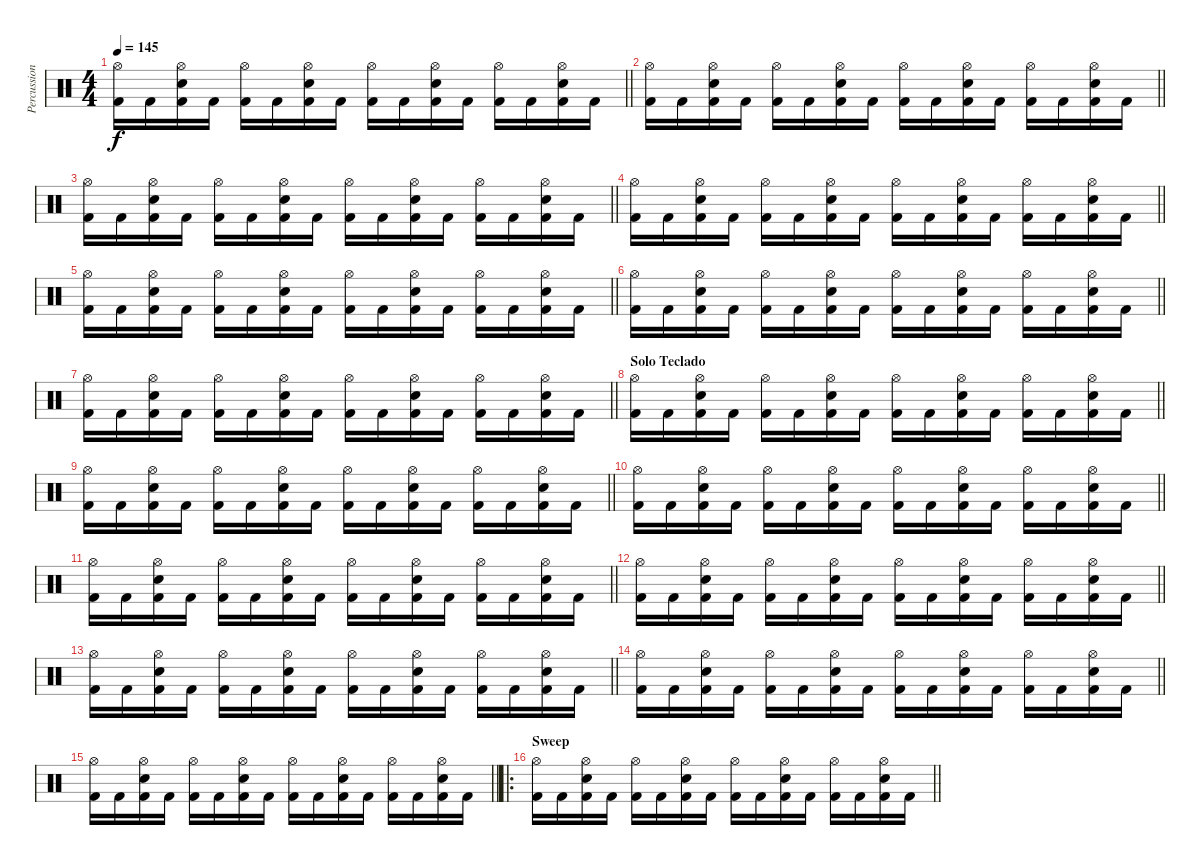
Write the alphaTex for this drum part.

\track ("Percussion" "Percussion") {instrument percussion}
\staff {score}
\articulation defaults
\ts (4 4)
\tempo 145
\clef neutral
\barLineRight lightlight
\ks c
("Hi-Hat (open)" "Kick (hit) 2").16{dy f} "Kick (hit) 2".16 ("Hi-Hat (open)" "Electric Snare (hit)" "Kick (hit) 2").16 "Kick (hit) 2".16 ("Hi-Hat (open)" "Kick (hit) 2").16 "Kick (hit) 2".16 ("Hi-Hat (open)" "Electric Snare (hit)" "Kick (hit) 2").16 "Kick (hit) 2".16 ("Hi-Hat (open)" "Kick (hit) 2").16 "Kick (hit) 2".16 ("Hi-Hat (open)" "Electric Snare (hit)" "Kick (hit) 2").16 "Kick (hit) 2".16 ("Hi-Hat (open)" "Kick (hit) 2").16 "Kick (hit) 2".16 ("Hi-Hat (open)" "Electric Snare (hit)" "Kick (hit) 2").16 "Kick (hit) 2".16 |
\barLineRight lightlight
("Hi-Hat (open)" "Kick (hit) 2").16 "Kick (hit) 2".16 ("Hi-Hat (open)" "Electric Snare (hit)" "Kick (hit) 2").16 "Kick (hit) 2".16 ("Hi-Hat (open)" "Kick (hit) 2").16 "Kick (hit) 2".16 ("Hi-Hat (open)" "Electric Snare (hit)" "Kick (hit) 2").16 "Kick (hit) 2".16 ("Hi-Hat (open)" "Kick (hit) 2").16 "Kick (hit) 2".16 ("Hi-Hat (open)" "Electric Snare (hit)" "Kick (hit) 2").16 "Kick (hit) 2".16 ("Hi-Hat (open)" "Kick (hit) 2").16 "Kick (hit) 2".16 ("Hi-Hat (open)" "Electric Snare (hit)" "Kick (hit) 2").16 "Kick (hit) 2".16 |
\barLineRight lightlight
("Hi-Hat (open)" "Kick (hit) 2").16 "Kick (hit) 2".16 ("Hi-Hat (open)" "Electric Snare (hit)" "Kick (hit) 2").16 "Kick (hit) 2".16 ("Hi-Hat (open)" "Kick (hit) 2").16 "Kick (hit) 2".16 ("Hi-Hat (open)" "Electric Snare (hit)" "Kick (hit) 2").16 "Kick (hit) 2".16 ("Hi-Hat (open)" "Kick (hit) 2").16 "Kick (hit) 2".16 ("Hi-Hat (open)" "Electric Snare (hit)" "Kick (hit) 2").16 "Kick (hit) 2".16 ("Hi-Hat (open)" "Kick (hit) 2").16 "Kick (hit) 2".16 ("Hi-Hat (open)" "Electric Snare (hit)" "Kick (hit) 2").16 "Kick (hit) 2".16 |
\barLineRight lightlight
("Hi-Hat (open)" "Kick (hit) 2").16 "Kick (hit) 2".16 ("Hi-Hat (open)" "Electric Snare (hit)" "Kick (hit) 2").16 "Kick (hit) 2".16 ("Hi-Hat (open)" "Kick (hit) 2").16 "Kick (hit) 2".16 ("Hi-Hat (open)" "Electric Snare (hit)" "Kick (hit) 2").16 "Kick (hit) 2".16 ("Hi-Hat (open)" "Kick (hit) 2").16 "Kick (hit) 2".16 ("Hi-Hat (open)" "Electric Snare (hit)" "Kick (hit) 2").16 "Kick (hit) 2".16 ("Hi-Hat (open)" "Kick (hit) 2").16 "Kick (hit) 2".16 ("Hi-Hat (open)" "Electric Snare (hit)" "Kick (hit) 2").16 "Kick (hit) 2".16 |
\barLineRight lightlight
("Hi-Hat (open)" "Kick (hit) 2").16 "Kick (hit) 2".16 ("Hi-Hat (open)" "Electric Snare (hit)" "Kick (hit) 2").16 "Kick (hit) 2".16 ("Hi-Hat (open)" "Kick (hit) 2").16 "Kick (hit) 2".16 ("Hi-Hat (open)" "Electric Snare (hit)" "Kick (hit) 2").16 "Kick (hit) 2".16 ("Hi-Hat (open)" "Kick (hit) 2").16 "Kick (hit) 2".16 ("Hi-Hat (open)" "Electric Snare (hit)" "Kick (hit) 2").16 "Kick (hit) 2".16 ("Hi-Hat (open)" "Kick (hit) 2").16 "Kick (hit) 2".16 ("Hi-Hat (open)" "Electric Snare (hit)" "Kick (hit) 2").16 "Kick (hit) 2".16 |
\barLineRight lightlight
("Hi-Hat (open)" "Kick (hit) 2").16 "Kick (hit) 2".16 ("Hi-Hat (open)" "Electric Snare (hit)" "Kick (hit) 2").16 "Kick (hit) 2".16 ("Hi-Hat (open)" "Kick (hit) 2").16 "Kick (hit) 2".16 ("Hi-Hat (open)" "Electric Snare (hit)" "Kick (hit) 2").16 "Kick (hit) 2".16 ("Hi-Hat (open)" "Kick (hit) 2").16 "Kick (hit) 2".16 ("Hi-Hat (open)" "Electric Snare (hit)" "Kick (hit) 2").16 "Kick (hit) 2".16 ("Hi-Hat (open)" "Kick (hit) 2").16 "Kick (hit) 2".16 ("Hi-Hat (open)" "Electric Snare (hit)" "Kick (hit) 2").16 "Kick (hit) 2".16 |
\barLineRight lightlight
("Hi-Hat (open)" "Kick (hit) 2").16 "Kick (hit) 2".16 ("Hi-Hat (open)" "Electric Snare (hit)" "Kick (hit) 2").16 "Kick (hit) 2".16 ("Hi-Hat (open)" "Kick (hit) 2").16 "Kick (hit) 2".16 ("Hi-Hat (open)" "Electric Snare (hit)" "Kick (hit) 2").16 "Kick (hit) 2".16 ("Hi-Hat (open)" "Kick (hit) 2").16 "Kick (hit) 2".16 ("Hi-Hat (open)" "Electric Snare (hit)" "Kick (hit) 2").16 "Kick (hit) 2".16 ("Hi-Hat (open)" "Kick (hit) 2").16 "Kick (hit) 2".16 ("Hi-Hat (open)" "Electric Snare (hit)" "Kick (hit) 2").16 "Kick (hit) 2".16 |
\section ("" "Solo Teclado")
\barLineRight lightlight
("Hi-Hat (open)" "Kick (hit) 2").16 "Kick (hit) 2".16 ("Hi-Hat (open)" "Electric Snare (hit)" "Kick (hit) 2").16 "Kick (hit) 2".16 ("Hi-Hat (open)" "Kick (hit) 2").16 "Kick (hit) 2".16 ("Hi-Hat (open)" "Electric Snare (hit)" "Kick (hit) 2").16 "Kick (hit) 2".16 ("Hi-Hat (open)" "Kick (hit) 2").16 "Kick (hit) 2".16 ("Hi-Hat (open)" "Electric Snare (hit)" "Kick (hit) 2").16 "Kick (hit) 2".16 ("Hi-Hat (open)" "Kick (hit) 2").16 "Kick (hit) 2".16 ("Hi-Hat (open)" "Electric Snare (hit)" "Kick (hit) 2").16 "Kick (hit) 2".16 |
\barLineRight lightlight
("Hi-Hat (open)" "Kick (hit) 2").16 "Kick (hit) 2".16 ("Hi-Hat (open)" "Electric Snare (hit)" "Kick (hit) 2").16 "Kick (hit) 2".16 ("Hi-Hat (open)" "Kick (hit) 2").16 "Kick (hit) 2".16 ("Hi-Hat (open)" "Electric Snare (hit)" "Kick (hit) 2").16 "Kick (hit) 2".16 ("Hi-Hat (open)" "Kick (hit) 2").16 "Kick (hit) 2".16 ("Hi-Hat (open)" "Electric Snare (hit)" "Kick (hit) 2").16 "Kick (hit) 2".16 ("Hi-Hat (open)" "Kick (hit) 2").16 "Kick (hit) 2".16 ("Hi-Hat (open)" "Electric Snare (hit)" "Kick (hit) 2").16 "Kick (hit) 2".16 |
\barLineRight lightlight
("Hi-Hat (open)" "Kick (hit) 2").16 "Kick (hit) 2".16 ("Hi-Hat (open)" "Electric Snare (hit)" "Kick (hit) 2").16 "Kick (hit) 2".16 ("Hi-Hat (open)" "Kick (hit) 2").16 "Kick (hit) 2".16 ("Hi-Hat (open)" "Electric Snare (hit)" "Kick (hit) 2").16 "Kick (hit) 2".16 ("Hi-Hat (open)" "Kick (hit) 2").16 "Kick (hit) 2".16 ("Hi-Hat (open)" "Electric Snare (hit)" "Kick (hit) 2").16 "Kick (hit) 2".16 ("Hi-Hat (open)" "Kick (hit) 2").16 "Kick (hit) 2".16 ("Hi-Hat (open)" "Electric Snare (hit)" "Kick (hit) 2").16 "Kick (hit) 2".16 |
\barLineRight lightlight
("Hi-Hat (open)" "Kick (hit) 2").16 "Kick (hit) 2".16 ("Hi-Hat (open)" "Electric Snare (hit)" "Kick (hit) 2").16 "Kick (hit) 2".16 ("Hi-Hat (open)" "Kick (hit) 2").16 "Kick (hit) 2".16 ("Hi-Hat (open)" "Electric Snare (hit)" "Kick (hit) 2").16 "Kick (hit) 2".16 ("Hi-Hat (open)" "Kick (hit) 2").16 "Kick (hit) 2".16 ("Hi-Hat (open)" "Electric Snare (hit)" "Kick (hit) 2").16 "Kick (hit) 2".16 ("Hi-Hat (open)" "Kick (hit) 2").16 "Kick (hit) 2".16 ("Hi-Hat (open)" "Electric Snare (hit)" "Kick (hit) 2").16 "Kick (hit) 2".16 |
\barLineRight lightlight
("Hi-Hat (open)" "Kick (hit) 2").16 "Kick (hit) 2".16 ("Hi-Hat (open)" "Electric Snare (hit)" "Kick (hit) 2").16 "Kick (hit) 2".16 ("Hi-Hat (open)" "Kick (hit) 2").16 "Kick (hit) 2".16 ("Hi-Hat (open)" "Electric Snare (hit)" "Kick (hit) 2").16 "Kick (hit) 2".16 ("Hi-Hat (open)" "Kick (hit) 2").16 "Kick (hit) 2".16 ("Hi-Hat (open)" "Electric Snare (hit)" "Kick (hit) 2").16 "Kick (hit) 2".16 ("Hi-Hat (open)" "Kick (hit) 2").16 "Kick (hit) 2".16 ("Hi-Hat (open)" "Electric Snare (hit)" "Kick (hit) 2").16 "Kick (hit) 2".16 |
\barLineRight lightlight
("Hi-Hat (open)" "Kick (hit) 2").16 "Kick (hit) 2".16 ("Hi-Hat (open)" "Electric Snare (hit)" "Kick (hit) 2").16 "Kick (hit) 2".16 ("Hi-Hat (open)" "Kick (hit) 2").16 "Kick (hit) 2".16 ("Hi-Hat (open)" "Electric Snare (hit)" "Kick (hit) 2").16 "Kick (hit) 2".16 ("Hi-Hat (open)" "Kick (hit) 2").16 "Kick (hit) 2".16 ("Hi-Hat (open)" "Electric Snare (hit)" "Kick (hit) 2").16 "Kick (hit) 2".16 ("Hi-Hat (open)" "Kick (hit) 2").16 "Kick (hit) 2".16 ("Hi-Hat (open)" "Electric Snare (hit)" "Kick (hit) 2").16 "Kick (hit) 2".16 |
\barLineRight lightlight
("Hi-Hat (open)" "Kick (hit) 2").16 "Kick (hit) 2".16 ("Hi-Hat (open)" "Electric Snare (hit)" "Kick (hit) 2").16 "Kick (hit) 2".16 ("Hi-Hat (open)" "Kick (hit) 2").16 "Kick (hit) 2".16 ("Hi-Hat (open)" "Electric Snare (hit)" "Kick (hit) 2").16 "Kick (hit) 2".16 ("Hi-Hat (open)" "Kick (hit) 2").16 "Kick (hit) 2".16 ("Hi-Hat (open)" "Electric Snare (hit)" "Kick (hit) 2").16 "Kick (hit) 2".16 ("Hi-Hat (open)" "Kick (hit) 2").16 "Kick (hit) 2".16 ("Hi-Hat (open)" "Electric Snare (hit)" "Kick (hit) 2").16 "Kick (hit) 2".16 |
\barLineRight lightlight
("Hi-Hat (open)" "Kick (hit) 2").16 "Kick (hit) 2".16 ("Hi-Hat (open)" "Electric Snare (hit)" "Kick (hit) 2").16 "Kick (hit) 2".16 ("Hi-Hat (open)" "Kick (hit) 2").16 "Kick (hit) 2".16 ("Hi-Hat (open)" "Electric Snare (hit)" "Kick (hit) 2").16 "Kick (hit) 2".16 ("Hi-Hat (open)" "Kick (hit) 2").16 "Kick (hit) 2".16 ("Hi-Hat (open)" "Electric Snare (hit)" "Kick (hit) 2").16 "Kick (hit) 2".16 ("Hi-Hat (open)" "Kick (hit) 2").16 "Kick (hit) 2".16 ("Hi-Hat (open)" "Electric Snare (hit)" "Kick (hit) 2").16 "Kick (hit) 2".16 |
\ro
\section ("" "Sweep")
\barLineRight lightlight
("Hi-Hat (open)" "Kick (hit) 2").16 "Kick (hit) 2".16 ("Hi-Hat (open)" "Electric Snare (hit)" "Kick (hit) 2").16 "Kick (hit) 2".16 ("Hi-Hat (open)" "Kick (hit) 2").16 "Kick (hit) 2".16 ("Hi-Hat (open)" "Electric Snare (hit)" "Kick (hit) 2").16 "Kick (hit) 2".16 ("Hi-Hat (open)" "Kick (hit) 2").16 "Kick (hit) 2".16 ("Hi-Hat (open)" "Electric Snare (hit)" "Kick (hit) 2").16 "Kick (hit) 2".16 ("Hi-Hat (open)" "Kick (hit) 2").16 "Kick (hit) 2".16 ("Hi-Hat (open)" "Electric Snare (hit)" "Kick (hit) 2").16 "Kick (hit) 2".16
